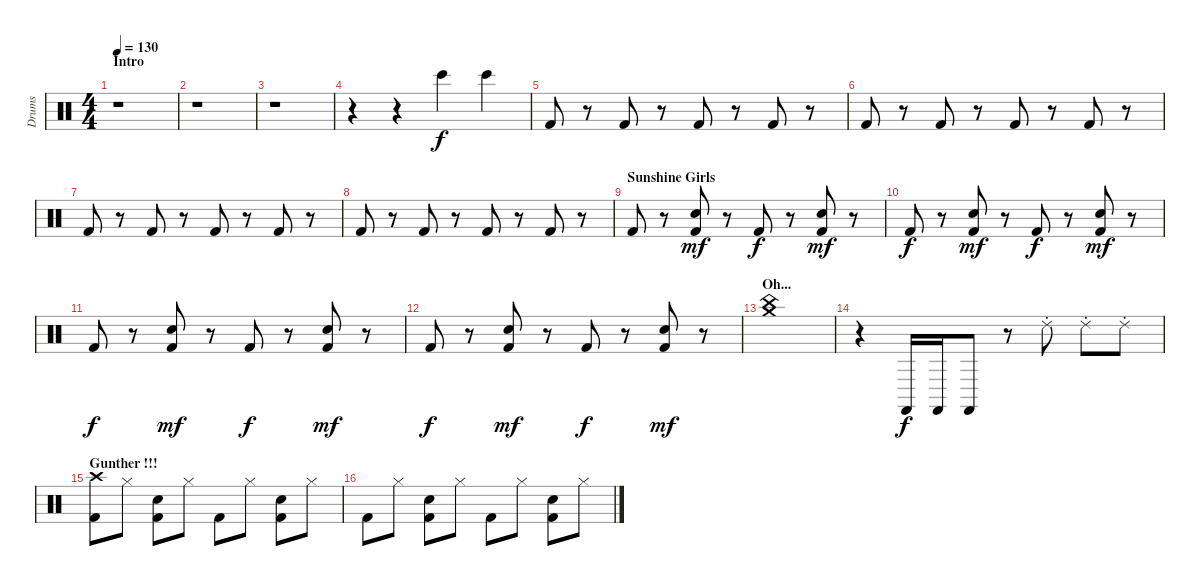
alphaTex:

\track ("Drums" "Drums") {instrument percussion}
\staff {score}
\articulation defaults
\ts (4 4)
\section ("" "Intro")
\tempo 130
\clef neutral
\ks c
r.1{dy f} |
r.1 |
r.1 |
r.4 r.4 "Bongo High (hit)".4 "Bongo High (hit)".4 |
"Kick (hit) 2".8 r.8 "Kick (hit) 2".8 r.8 "Kick (hit) 2".8 r.8 "Kick (hit) 2".8 r.8 |
"Kick (hit) 2".8 r.8 "Kick (hit) 2".8 r.8 "Kick (hit) 2".8 r.8 "Kick (hit) 2".8 r.8 |
"Kick (hit) 2".8 r.8 "Kick (hit) 2".8 r.8 "Kick (hit) 2".8 r.8 "Kick (hit) 2".8 r.8 |
"Kick (hit) 2".8 r.8 "Kick (hit) 2".8 r.8 "Kick (hit) 2".8 r.8 "Kick (hit) 2".8 r.8 |
\section ("" "Sunshine Girls")
"Kick (hit) 2".8 r.8 ("Hand Clap (hit)" "Kick (hit) 2").8{dy mf} r.8 "Kick (hit) 2".8{dy f} r.8 ("Hand Clap (hit)" "Kick (hit) 2").8{dy mf} r.8 |
"Kick (hit) 2".8{dy f} r.8 ("Hand Clap (hit)" "Kick (hit) 2").8{dy mf} r.8 "Kick (hit) 2".8{dy f} r.8 ("Hand Clap (hit)" "Kick (hit) 2").8{dy mf} r.8 |
"Kick (hit) 2".8{dy f} r.8 ("Hand Clap (hit)" "Kick (hit) 2").8{dy mf} r.8 "Kick (hit) 2".8{dy f} r.8 ("Hand Clap (hit)" "Kick (hit) 2").8{dy mf} r.8 |
"Kick (hit) 2".8{dy f} r.8 ("Hand Clap (hit)" "Kick (hit) 2").8{dy mf} r.8 "Kick (hit) 2".8{dy f} r.8 ("Hand Clap (hit)" "Kick (hit) 2").8{dy mf} r.8 |
\section ("" "Oh...")
("Crash medium (hit)" "China (hit)").1 |
r.4 "Castanets (hit)".16{dy f} "Castanets (hit)".16 "Castanets (hit)".8 r.8 "Ride (choke) 2".8 "Ride (choke) 2".8 "Ride (choke) 2".8 |
\section ("" "Gunther !!!")
("Crash high (hit)" "Kick (hit) 2").8 "Hi-Hat (closed)".8 ("Hand Clap (hit)" "Kick (hit) 2").8 "Hi-Hat (closed)".8 "Kick (hit) 2".8 "Hi-Hat (closed)".8 ("Hand Clap (hit)" "Kick (hit) 2").8 "Hi-Hat (closed)".8 |
"Kick (hit) 2".8 "Hi-Hat (closed)".8 ("Hand Clap (hit)" "Kick (hit) 2").8 "Hi-Hat (closed)".8 "Kick (hit) 2".8 "Hi-Hat (closed)".8 ("Hand Clap (hit)" "Kick (hit) 2").8 "Hi-Hat (closed)".8
